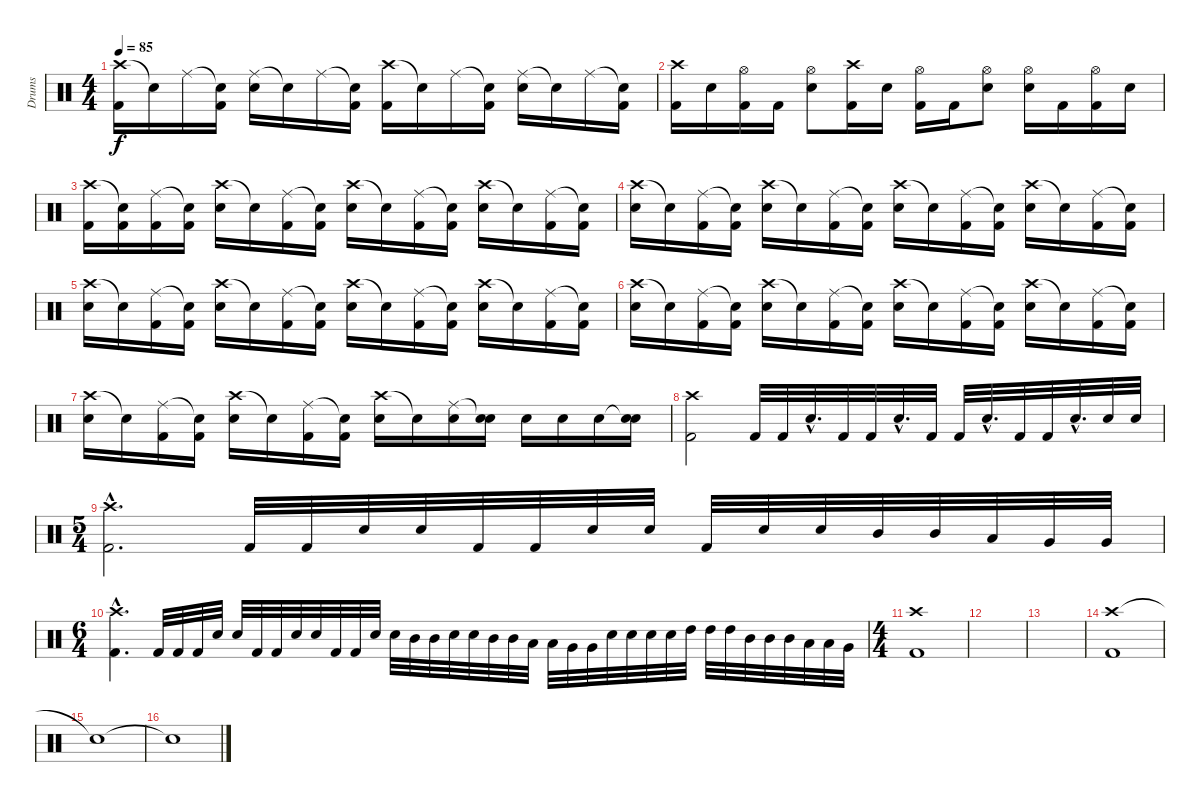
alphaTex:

\track ("Drums" "Drums") {instrument percussion}
\staff {score}
\articulation defaults
\ts (4 4)
\tempo 85
\clef neutral
\ks c
("Crash high (hit)" "Kick (hit) 2").16{dy f} "Snare (hit)"{t}.16 "Ride (middle)".16 ("Snare (hit)"{t} "Kick (hit) 2").16 ("Ride (middle)" "Snare (hit) 2").16 "Snare (hit)"{t}.16 "Ride (middle)".16 ("Snare (hit)"{t} "Kick (hit) 2").16 ("Crash high (hit)" "Kick (hit) 2").16 "Snare (hit)"{t}.16 "Ride (middle)".16 ("Snare (hit)"{t} "Kick (hit) 2").16 ("Ride (middle)" "Snare (hit) 2").16 "Snare (hit)"{t}.16 "Ride (middle)".16 ("Snare (hit)"{t} "Kick (hit) 2").16 |
("Crash high (hit)" "Kick (hit) 2").16 "Snare (hit) 2".16 ("Hi-Hat (open)" "Kick (hit) 2").16 "Kick (hit) 2".16 ("Hi-Hat (open)" "Snare (hit) 2").8 ("Crash high (hit)" "Kick (hit) 2").16 "Snare (hit) 2".16 ("Hi-Hat (open)" "Kick (hit) 2").16 "Kick (hit) 2".16 ("Hi-Hat (open)" "Snare (hit) 2").8 ("Hi-Hat (open)" "Snare (hit) 2").16 "Kick (hit) 2".16 ("Hi-Hat (open)" "Kick (hit) 2").16 "Snare (hit) 2".16 |
("Crash high (hit)" "Kick (hit) 2").16 ("Snare (hit)"{t} "Kick (hit) 2").16 ("Ride (middle)" "Kick (hit) 2").16 ("Snare (hit)"{t} "Kick (hit) 2").16 ("Crash high (hit)" "Snare (hit) 2").16 "Snare (hit)"{t}.16 ("Ride (middle)" "Kick (hit) 2").16 ("Snare (hit)"{t} "Kick (hit) 2").16 ("Crash high (hit)" "Snare (hit) 2").16 "Snare (hit)"{t}.16 ("Ride (middle)" "Kick (hit) 2").16 ("Snare (hit)"{t} "Kick (hit) 2").16 ("Crash high (hit)" "Snare (hit) 2").16 "Snare (hit)"{t}.16 ("Ride (middle)" "Kick (hit) 2").16 ("Snare (hit)"{t} "Kick (hit) 2").16 |
("Crash high (hit)" "Snare (hit) 2").16 "Snare (hit)"{t}.16 ("Ride (middle)" "Kick (hit) 2").16 ("Snare (hit)"{t} "Kick (hit) 2").16 ("Crash high (hit)" "Snare (hit) 2").16 "Snare (hit)"{t}.16 ("Ride (middle)" "Kick (hit) 2").16 ("Snare (hit)"{t} "Kick (hit) 2").16 ("Crash high (hit)" "Snare (hit) 2").16 "Snare (hit)"{t}.16 ("Ride (middle)" "Kick (hit) 2").16 ("Snare (hit)"{t} "Kick (hit) 2").16 ("Crash high (hit)" "Snare (hit) 2").16 "Snare (hit)"{t}.16 ("Ride (middle)" "Kick (hit) 2").16 ("Snare (hit)"{t} "Kick (hit) 2").16 |
("Crash high (hit)" "Snare (hit) 2").16 "Snare (hit)"{t}.16 ("Ride (middle)" "Kick (hit) 2").16 ("Snare (hit)"{t} "Kick (hit) 2").16 ("Crash high (hit)" "Snare (hit) 2").16 "Snare (hit)"{t}.16 ("Ride (middle)" "Kick (hit) 2").16 ("Snare (hit)"{t} "Kick (hit) 2").16 ("Crash high (hit)" "Snare (hit) 2").16 "Snare (hit)"{t}.16 ("Ride (middle)" "Kick (hit) 2").16 ("Snare (hit)"{t} "Kick (hit) 2").16 ("Crash high (hit)" "Snare (hit) 2").16 "Snare (hit)"{t}.16 ("Ride (middle)" "Kick (hit) 2").16 ("Snare (hit)"{t} "Kick (hit) 2").16 |
("Crash high (hit)" "Snare (hit) 2").16 "Snare (hit)"{t}.16 ("Ride (middle)" "Kick (hit) 2").16 ("Snare (hit)"{t} "Kick (hit) 2").16 ("Crash high (hit)" "Snare (hit) 2").16 "Snare (hit)"{t}.16 ("Ride (middle)" "Kick (hit) 2").16 ("Snare (hit)"{t} "Kick (hit) 2").16 ("Crash high (hit)" "Snare (hit) 2").16 "Snare (hit)"{t}.16 ("Ride (middle)" "Kick (hit) 2").16 ("Snare (hit)"{t} "Kick (hit) 2").16 ("Crash high (hit)" "Snare (hit) 2").16 "Snare (hit)"{t}.16 ("Ride (middle)" "Kick (hit) 2").16 ("Snare (hit)"{t} "Kick (hit) 2").16 |
("Crash high (hit)" "Snare (hit) 2").16 "Snare (hit)"{t}.16 ("Ride (middle)" "Kick (hit) 2").16 ("Snare (hit)"{t} "Kick (hit) 2").16 ("Crash high (hit)" "Snare (hit) 2").16 "Snare (hit)"{t}.16 ("Ride (middle)" "Kick (hit) 2").16 ("Snare (hit)"{t} "Kick (hit) 2").16 ("Crash high (hit)" "Snare (hit) 2").16 "Snare (hit)"{t}.16 ("Ride (middle)" "Snare (hit) 2").16 ("Snare (hit)"{t} "Snare (hit) 2").16 "Snare (hit) 2".16 "Snare (hit) 2".16 "Snare (hit) 2".16 ("Snare (hit)"{t} "Snare (hit) 2").16 |
("Crash high (hit)" "Kick (hit) 2").2 "Kick (hit) 2".32 "Kick (hit) 2".32 "Snare (hit) 2"{hac}.32{d} "Kick (hit) 2".32 "Kick (hit) 2".32 "Snare (hit) 2"{hac}.32{d} "Kick (hit) 2".32 "Kick (hit) 2".32 "Snare (hit) 2"{hac}.32{d} "Kick (hit) 2".32 "Kick (hit) 2".32 "Snare (hit) 2"{hac}.32{d} "Snare (hit) 2".32 "Snare (hit) 2".32 |
\ts (5 4)
("Crash high (hit)"{hac} "Kick (hit) 2"{hac}).2{d} "Kick (hit) 2".32 "Kick (hit) 2".32 "Snare (hit) 2".32 "Snare (hit) 2".32 "Kick (hit) 2".32 "Kick (hit) 2".32 "Snare (hit) 2".32 "Snare (hit) 2".32 "Kick (hit) 2".32 "Snare (hit) 2".32 "Snare (hit) 2".32 "Mid Tom (hit)".32 "Mid Tom (hit)".32 "Low Tom (hit)".32 "Very Low Tom (hit)".32 "Very Low Tom (hit)".32 |
\ts (6 4)
("Crash high (hit)"{hac} "Kick (hit) 2"{hac}).4{d} "Kick (hit) 2".32 "Kick (hit) 2".32 "Kick (hit) 2".32 "Snare (hit) 2".32 "Snare (hit) 2".32 "Kick (hit) 2".32 "Kick (hit) 2".32 "Snare (hit) 2".32 "Snare (hit) 2".32 "Kick (hit) 2".32 "Kick (hit) 2".32 "Snare (hit) 2".32 "Snare (hit) 2".32 "Mid Tom (hit)".32 "Mid Tom (hit)".32 "Snare (hit) 2".32 "Snare (hit) 2".32 "Mid Tom (hit)".32 "Mid Tom (hit)".32 "Low Tom (hit)".32 "Low Tom (hit)".32 "Very Low Tom (hit)".32 "Very Low Tom (hit)".32 "Snare (hit) 2".32 "Snare (hit) 2".32 "Snare (hit) 2".32 "Snare (hit) 2".32 "High Tom (hit)".32 "High Tom (hit)".32 "High Tom (hit)".32 "Mid Tom (hit)".32 "Mid Tom (hit)".32 "Mid Tom (hit)".32 "Low Tom (hit)".32 "Low Tom (hit)".32 "Very Low Tom (hit)".32 |
\ts (4 4)
("Crash high (hit)" "Kick (hit) 2").1 |
|
|
("Crash high (hit)" "Kick (hit) 2").1 |
"Snare (hit)"{t}.1 |
"Snare (hit)"{t}.1
